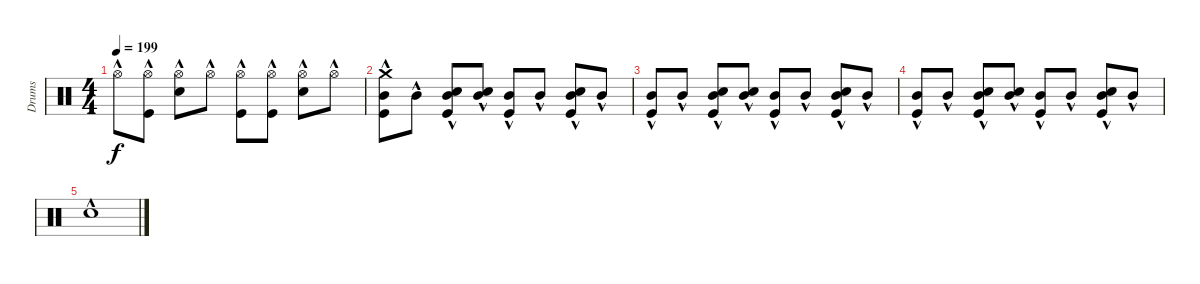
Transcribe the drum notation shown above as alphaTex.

\track ("Drumkit" "Drums") {instrument percussion}
\staff {score}
\articulation defaults
\ts (4 4)
\tempo 199
\clef neutral
\ks c "Hi-Hat (open)"{hac}.8{dy f}
("Kick (hit)"{hac} "Hi-Hat (open)"{hac}).8 ("Hi-Hat (open)"{hac} "Snare (hit) 2"{hac}).8 "Hi-Hat (open)"{hac}.8 ("Hi-Hat (open)"{hac} "Kick (hit)"{hac}).8 ("Kick (hit)"{hac} "Hi-Hat (open)"{hac}).8 ("Hi-Hat (open)"{hac} "Snare (hit) 2"{hac}).8 "Hi-Hat (open)"{hac}.8 |
("Mid Tom (hit)"{hac} "Kick (hit)"{hac} "Crash medium (hit)"{hac}).8 "Mid Tom (hit)"{hac}.8 ("Mid Tom (hit)"{hac} "Kick (hit)"{hac} "Snare (hit) 2"{hac}).8 ("Mid Tom (hit)"{hac} "Snare (hit) 2"{hac}).8 ("Mid Tom (hit)"{hac} "Kick (hit)"{hac}).8 "Mid Tom (hit)"{hac}.8 ("Mid Tom (hit)"{hac} "Kick (hit)"{hac} "Snare (hit) 2"{hac}).8 "Mid Tom (hit)"{hac}.8 |
("Mid Tom (hit)"{hac} "Kick (hit)"{hac}).8 "Mid Tom (hit)"{hac}.8 ("Mid Tom (hit)"{hac} "Kick (hit)"{hac} "Snare (hit) 2"{hac}).8 ("Mid Tom (hit)"{hac} "Snare (hit) 2"{hac}).8 ("Mid Tom (hit)"{hac} "Kick (hit)"{hac}).8 "Mid Tom (hit)"{hac}.8 ("Mid Tom (hit)"{hac} "Kick (hit)"{hac} "Snare (hit) 2"{hac}).8 "Mid Tom (hit)"{hac}.8 |
("Mid Tom (hit)"{hac} "Kick (hit)"{hac}).8 "Mid Tom (hit)"{hac}.8 ("Mid Tom (hit)"{hac} "Kick (hit)"{hac} "Snare (hit) 2"{hac}).8 ("Mid Tom (hit)"{hac} "Snare (hit) 2"{hac}).8 ("Mid Tom (hit)"{hac} "Kick (hit)"{hac}).8 "Mid Tom (hit)"{hac}.8 ("Mid Tom (hit)"{hac} "Kick (hit)"{hac} "Snare (hit) 2"{hac}).8 "Mid Tom (hit)"{hac}.8 |
"Snare (hit) 2"{hac}.1
